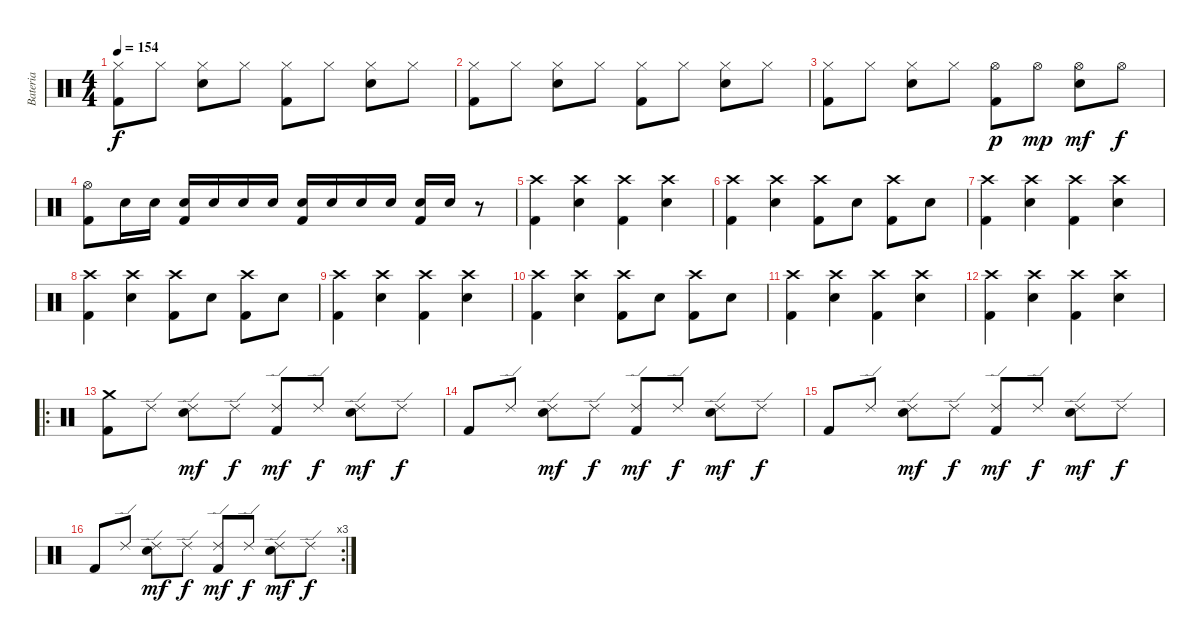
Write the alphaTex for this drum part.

\track ("Bateria" "Bateria") {instrument percussion}
\staff {score}
\articulation defaults
\ts (4 4)
\tempo 154
\clef neutral
\ks c
("Kick (hit) 2" "Hi-Hat (closed)").8{dy f} "Hi-Hat (closed)".8 ("Hi-Hat (closed)" "Snare (hit) 2").8 "Hi-Hat (closed)".8 ("Kick (hit) 2" "Hi-Hat (closed)").8 "Hi-Hat (closed)".8 ("Hi-Hat (closed)" "Snare (hit) 2").8 "Hi-Hat (closed)".8 |
("Kick (hit) 2" "Hi-Hat (closed)").8 "Hi-Hat (closed)".8 ("Hi-Hat (closed)" "Snare (hit) 2").8 "Hi-Hat (closed)".8 ("Kick (hit) 2" "Hi-Hat (closed)").8 "Hi-Hat (closed)".8 ("Hi-Hat (closed)" "Snare (hit) 2").8 "Hi-Hat (closed)".8 |
("Kick (hit) 2" "Hi-Hat (closed)").8 "Hi-Hat (closed)".8 ("Hi-Hat (closed)" "Snare (hit) 2").8 "Hi-Hat (closed)".8 ("Kick (hit) 2" "Hi-Hat (open)").8{dy p} "Hi-Hat (open)".8{dy mp} ("Hi-Hat (open)" "Snare (hit) 2").8{dy mf} "Hi-Hat (open)".8{dy f} |
("Kick (hit) 2" "Hi-Hat (open)").8 "Snare (hit) 2".16 "Snare (hit) 2".16 ("Kick (hit) 2" "Snare (hit) 2").16 "Snare (hit) 2".16 "Snare (hit) 2".16 "Snare (hit) 2".16 ("Kick (hit) 2" "Snare (hit) 2").16 "Snare (hit) 2".16 "Snare (hit) 2".16 "Snare (hit) 2".16 ("Kick (hit) 2" "Snare (hit) 2").16 "Snare (hit) 2".16 r.8 |
("Kick (hit) 2" "Crash high (hit)").4 ("Crash high (hit)" "Snare (hit) 2").4 ("Kick (hit) 2" "Crash high (hit)").4 ("Crash high (hit)" "Snare (hit) 2").4 |
("Kick (hit) 2" "Crash high (hit)").4 ("Crash high (hit)" "Snare (hit) 2").4 ("Kick (hit) 2" "Crash high (hit)").8 "Snare (hit) 2".8 ("Kick (hit) 2" "Crash high (hit)").8 "Snare (hit) 2".8 |
("Kick (hit) 2" "Crash high (hit)").4 ("Crash high (hit)" "Snare (hit) 2").4 ("Kick (hit) 2" "Crash high (hit)").4 ("Crash high (hit)" "Snare (hit) 2").4 |
("Kick (hit) 2" "Crash high (hit)").4 ("Crash high (hit)" "Snare (hit) 2").4 ("Kick (hit) 2" "Crash high (hit)").8 "Snare (hit) 2".8 ("Kick (hit) 2" "Crash high (hit)").8 "Snare (hit) 2".8 |
("Kick (hit) 2" "Crash high (hit)").4 ("Crash high (hit)" "Snare (hit) 2").4 ("Kick (hit) 2" "Crash high (hit)").4 ("Crash high (hit)" "Snare (hit) 2").4 |
("Kick (hit) 2" "Crash high (hit)").4 ("Crash high (hit)" "Snare (hit) 2").4 ("Kick (hit) 2" "Crash high (hit)").8 "Snare (hit) 2".8 ("Kick (hit) 2" "Crash high (hit)").8 "Snare (hit) 2".8 |
("Kick (hit) 2" "Crash high (hit)").4 ("Crash high (hit)" "Snare (hit) 2").4 ("Kick (hit) 2" "Crash high (hit)").4 ("Crash high (hit)" "Snare (hit) 2").4 |
("Kick (hit) 2" "Crash high (hit)").4 ("Crash high (hit)" "Snare (hit) 2").4 ("Kick (hit) 2" "Crash high (hit)").4 ("Crash high (hit)" "Snare (hit) 2").4 |
\ro
("Kick (hit) 2" "Crash medium (hit)").8 "Ride (edge) 2".8 ("Ride (edge) 2" "Snare (hit) 2").8{dy mf} "Ride (edge) 2".8{dy f} ("Kick (hit) 2" "Ride (edge) 2").8{dy mf} "Ride (edge) 2".8{dy f} ("Ride (edge) 2" "Snare (hit) 2").8{dy mf} "Ride (edge) 2".8{dy f} |
"Kick (hit) 2".8 "Ride (edge) 2".8 ("Ride (edge) 2" "Snare (hit) 2").8{dy mf} "Ride (edge) 2".8{dy f} ("Kick (hit) 2" "Ride (edge) 2").8{dy mf} "Ride (edge) 2".8{dy f} ("Ride (edge) 2" "Snare (hit) 2").8{dy mf} "Ride (edge) 2".8{dy f} |
"Kick (hit) 2".8 "Ride (edge) 2".8 ("Ride (edge) 2" "Snare (hit) 2").8{dy mf} "Ride (edge) 2".8{dy f} ("Kick (hit) 2" "Ride (edge) 2").8{dy mf} "Ride (edge) 2".8{dy f} ("Ride (edge) 2" "Snare (hit) 2").8{dy mf} "Ride (edge) 2".8{dy f} |
\rc 3 "Kick (hit) 2".8 "Ride (edge) 2".8
("Ride (edge) 2" "Snare (hit) 2").8{dy mf} "Ride (edge) 2".8{dy f} ("Kick (hit) 2" "Ride (edge) 2").8{dy mf} "Ride (edge) 2".8{dy f} ("Ride (edge) 2" "Snare (hit) 2").8{dy mf} "Ride (edge) 2".8{dy f}
